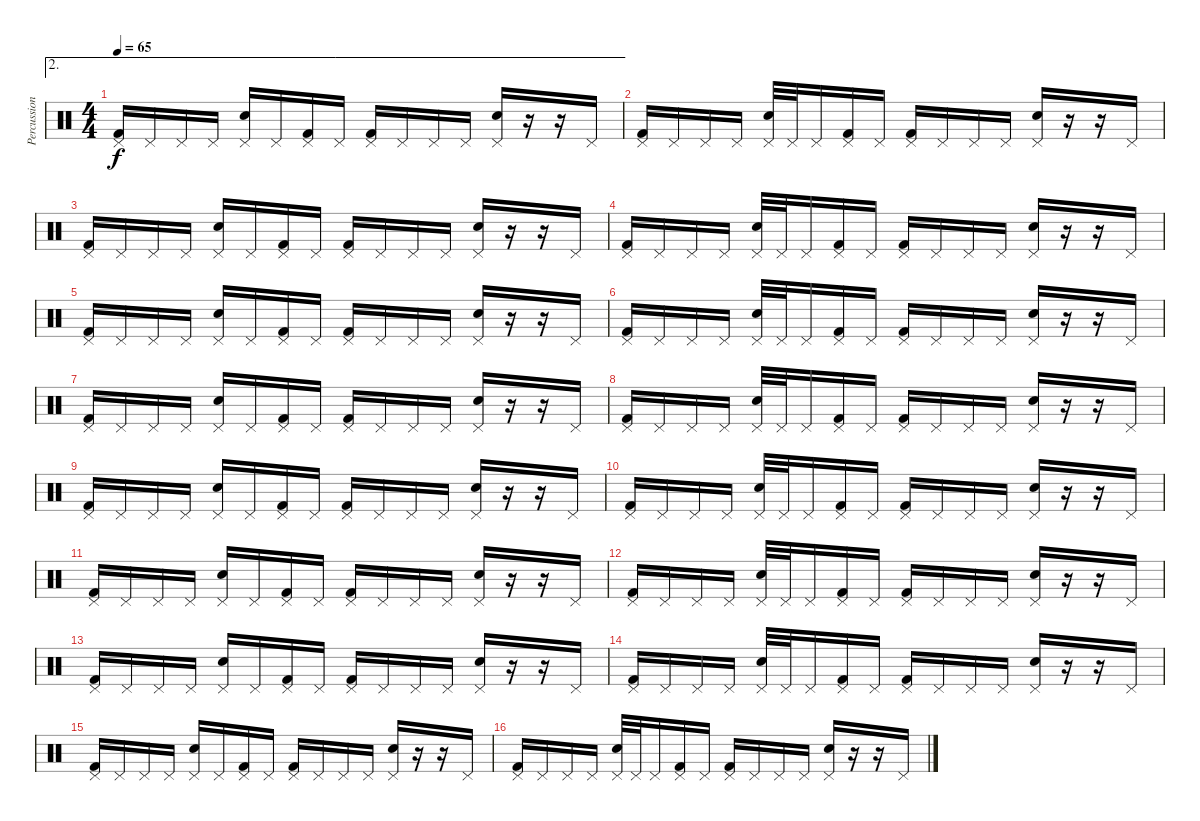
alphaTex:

\track ("Percussion" "Percussion") {instrument percussion}
\staff {score}
\articulation defaults
\ae 2
\ts (4 4)
\tempo 65
\clef neutral
\ks c
("Pedal Hi-Hat (hit)" "Kick (hit) 2").16{dy f} "Pedal Hi-Hat (hit)".16 "Pedal Hi-Hat (hit)".16 "Pedal Hi-Hat (hit)".16 ("Pedal Hi-Hat (hit)" "Snare (hit) 2").16 "Pedal Hi-Hat (hit)".16 ("Pedal Hi-Hat (hit)" "Kick (hit) 2").16 "Pedal Hi-Hat (hit)".16 ("Pedal Hi-Hat (hit)" "Kick (hit) 2").16 "Pedal Hi-Hat (hit)".16 "Pedal Hi-Hat (hit)".16 "Pedal Hi-Hat (hit)".16 ("Pedal Hi-Hat (hit)" "Snare (hit) 2").16 r.16 r.16 "Pedal Hi-Hat (hit)".16 |
("Pedal Hi-Hat (hit)" "Kick (hit) 2").16 "Pedal Hi-Hat (hit)".16 "Pedal Hi-Hat (hit)".16 "Pedal Hi-Hat (hit)".16 ("Pedal Hi-Hat (hit)" "Snare (hit) 2").32 "Pedal Hi-Hat (hit)".32 "Pedal Hi-Hat (hit)".16 ("Pedal Hi-Hat (hit)" "Kick (hit) 2").16 "Pedal Hi-Hat (hit)".16 ("Pedal Hi-Hat (hit)" "Kick (hit) 2").16 "Pedal Hi-Hat (hit)".16 "Pedal Hi-Hat (hit)".16 "Pedal Hi-Hat (hit)".16 ("Pedal Hi-Hat (hit)" "Snare (hit) 2").16 r.16 r.16 "Pedal Hi-Hat (hit)".16 |
("Pedal Hi-Hat (hit)" "Kick (hit) 2").16 "Pedal Hi-Hat (hit)".16 "Pedal Hi-Hat (hit)".16 "Pedal Hi-Hat (hit)".16 ("Pedal Hi-Hat (hit)" "Snare (hit) 2").16 "Pedal Hi-Hat (hit)".16 ("Pedal Hi-Hat (hit)" "Kick (hit) 2").16 "Pedal Hi-Hat (hit)".16 ("Pedal Hi-Hat (hit)" "Kick (hit) 2").16 "Pedal Hi-Hat (hit)".16 "Pedal Hi-Hat (hit)".16 "Pedal Hi-Hat (hit)".16 ("Pedal Hi-Hat (hit)" "Snare (hit) 2").16 r.16 r.16 "Pedal Hi-Hat (hit)".16 |
("Pedal Hi-Hat (hit)" "Kick (hit) 2").16 "Pedal Hi-Hat (hit)".16 "Pedal Hi-Hat (hit)".16 "Pedal Hi-Hat (hit)".16 ("Pedal Hi-Hat (hit)" "Snare (hit) 2").32 "Pedal Hi-Hat (hit)".32 "Pedal Hi-Hat (hit)".16 ("Pedal Hi-Hat (hit)" "Kick (hit) 2").16 "Pedal Hi-Hat (hit)".16 ("Pedal Hi-Hat (hit)" "Kick (hit) 2").16 "Pedal Hi-Hat (hit)".16 "Pedal Hi-Hat (hit)".16 "Pedal Hi-Hat (hit)".16 ("Pedal Hi-Hat (hit)" "Snare (hit) 2").16 r.16 r.16 "Pedal Hi-Hat (hit)".16 |
("Pedal Hi-Hat (hit)" "Kick (hit) 2").16 "Pedal Hi-Hat (hit)".16 "Pedal Hi-Hat (hit)".16 "Pedal Hi-Hat (hit)".16 ("Pedal Hi-Hat (hit)" "Snare (hit) 2").16 "Pedal Hi-Hat (hit)".16 ("Pedal Hi-Hat (hit)" "Kick (hit) 2").16 "Pedal Hi-Hat (hit)".16 ("Pedal Hi-Hat (hit)" "Kick (hit) 2").16 "Pedal Hi-Hat (hit)".16 "Pedal Hi-Hat (hit)".16 "Pedal Hi-Hat (hit)".16 ("Pedal Hi-Hat (hit)" "Snare (hit) 2").16 r.16 r.16 "Pedal Hi-Hat (hit)".16 |
("Pedal Hi-Hat (hit)" "Kick (hit) 2").16 "Pedal Hi-Hat (hit)".16 "Pedal Hi-Hat (hit)".16 "Pedal Hi-Hat (hit)".16 ("Pedal Hi-Hat (hit)" "Snare (hit) 2").32 "Pedal Hi-Hat (hit)".32 "Pedal Hi-Hat (hit)".16 ("Pedal Hi-Hat (hit)" "Kick (hit) 2").16 "Pedal Hi-Hat (hit)".16 ("Pedal Hi-Hat (hit)" "Kick (hit) 2").16 "Pedal Hi-Hat (hit)".16 "Pedal Hi-Hat (hit)".16 "Pedal Hi-Hat (hit)".16 ("Pedal Hi-Hat (hit)" "Snare (hit) 2").16 r.16 r.16 "Pedal Hi-Hat (hit)".16 |
("Pedal Hi-Hat (hit)" "Kick (hit) 2").16 "Pedal Hi-Hat (hit)".16 "Pedal Hi-Hat (hit)".16 "Pedal Hi-Hat (hit)".16 ("Pedal Hi-Hat (hit)" "Snare (hit) 2").16 "Pedal Hi-Hat (hit)".16 ("Pedal Hi-Hat (hit)" "Kick (hit) 2").16 "Pedal Hi-Hat (hit)".16 ("Pedal Hi-Hat (hit)" "Kick (hit) 2").16 "Pedal Hi-Hat (hit)".16 "Pedal Hi-Hat (hit)".16 "Pedal Hi-Hat (hit)".16 ("Pedal Hi-Hat (hit)" "Snare (hit) 2").16 r.16 r.16 "Pedal Hi-Hat (hit)".16 |
("Pedal Hi-Hat (hit)" "Kick (hit) 2").16 "Pedal Hi-Hat (hit)".16 "Pedal Hi-Hat (hit)".16 "Pedal Hi-Hat (hit)".16 ("Pedal Hi-Hat (hit)" "Snare (hit) 2").32 "Pedal Hi-Hat (hit)".32 "Pedal Hi-Hat (hit)".16 ("Pedal Hi-Hat (hit)" "Kick (hit) 2").16 "Pedal Hi-Hat (hit)".16 ("Pedal Hi-Hat (hit)" "Kick (hit) 2").16 "Pedal Hi-Hat (hit)".16 "Pedal Hi-Hat (hit)".16 "Pedal Hi-Hat (hit)".16 ("Pedal Hi-Hat (hit)" "Snare (hit) 2").16 r.16 r.16 "Pedal Hi-Hat (hit)".16 |
("Pedal Hi-Hat (hit)" "Kick (hit) 2").16 "Pedal Hi-Hat (hit)".16 "Pedal Hi-Hat (hit)".16 "Pedal Hi-Hat (hit)".16 ("Pedal Hi-Hat (hit)" "Snare (hit) 2").16 "Pedal Hi-Hat (hit)".16 ("Pedal Hi-Hat (hit)" "Kick (hit) 2").16 "Pedal Hi-Hat (hit)".16 ("Pedal Hi-Hat (hit)" "Kick (hit) 2").16 "Pedal Hi-Hat (hit)".16 "Pedal Hi-Hat (hit)".16 "Pedal Hi-Hat (hit)".16 ("Pedal Hi-Hat (hit)" "Snare (hit) 2").16 r.16 r.16 "Pedal Hi-Hat (hit)".16 |
("Pedal Hi-Hat (hit)" "Kick (hit) 2").16 "Pedal Hi-Hat (hit)".16 "Pedal Hi-Hat (hit)".16 "Pedal Hi-Hat (hit)".16 ("Pedal Hi-Hat (hit)" "Snare (hit) 2").32 "Pedal Hi-Hat (hit)".32 "Pedal Hi-Hat (hit)".16 ("Pedal Hi-Hat (hit)" "Kick (hit) 2").16 "Pedal Hi-Hat (hit)".16 ("Pedal Hi-Hat (hit)" "Kick (hit) 2").16 "Pedal Hi-Hat (hit)".16 "Pedal Hi-Hat (hit)".16 "Pedal Hi-Hat (hit)".16 ("Pedal Hi-Hat (hit)" "Snare (hit) 2").16 r.16 r.16 "Pedal Hi-Hat (hit)".16 |
("Pedal Hi-Hat (hit)" "Kick (hit) 2").16 "Pedal Hi-Hat (hit)".16 "Pedal Hi-Hat (hit)".16 "Pedal Hi-Hat (hit)".16 ("Pedal Hi-Hat (hit)" "Snare (hit) 2").16 "Pedal Hi-Hat (hit)".16 ("Pedal Hi-Hat (hit)" "Kick (hit) 2").16 "Pedal Hi-Hat (hit)".16 ("Pedal Hi-Hat (hit)" "Kick (hit) 2").16 "Pedal Hi-Hat (hit)".16 "Pedal Hi-Hat (hit)".16 "Pedal Hi-Hat (hit)".16 ("Pedal Hi-Hat (hit)" "Snare (hit) 2").16 r.16 r.16 "Pedal Hi-Hat (hit)".16 |
("Pedal Hi-Hat (hit)" "Kick (hit) 2").16 "Pedal Hi-Hat (hit)".16 "Pedal Hi-Hat (hit)".16 "Pedal Hi-Hat (hit)".16 ("Pedal Hi-Hat (hit)" "Snare (hit) 2").32 "Pedal Hi-Hat (hit)".32 "Pedal Hi-Hat (hit)".16 ("Pedal Hi-Hat (hit)" "Kick (hit) 2").16 "Pedal Hi-Hat (hit)".16 ("Pedal Hi-Hat (hit)" "Kick (hit) 2").16 "Pedal Hi-Hat (hit)".16 "Pedal Hi-Hat (hit)".16 "Pedal Hi-Hat (hit)".16 ("Pedal Hi-Hat (hit)" "Snare (hit) 2").16 r.16 r.16 "Pedal Hi-Hat (hit)".16 |
("Pedal Hi-Hat (hit)" "Kick (hit) 2").16 "Pedal Hi-Hat (hit)".16 "Pedal Hi-Hat (hit)".16 "Pedal Hi-Hat (hit)".16 ("Pedal Hi-Hat (hit)" "Snare (hit) 2").16 "Pedal Hi-Hat (hit)".16 ("Pedal Hi-Hat (hit)" "Kick (hit) 2").16 "Pedal Hi-Hat (hit)".16 ("Pedal Hi-Hat (hit)" "Kick (hit) 2").16 "Pedal Hi-Hat (hit)".16 "Pedal Hi-Hat (hit)".16 "Pedal Hi-Hat (hit)".16 ("Pedal Hi-Hat (hit)" "Snare (hit) 2").16 r.16 r.16 "Pedal Hi-Hat (hit)".16 |
("Pedal Hi-Hat (hit)" "Kick (hit) 2").16 "Pedal Hi-Hat (hit)".16 "Pedal Hi-Hat (hit)".16 "Pedal Hi-Hat (hit)".16 ("Pedal Hi-Hat (hit)" "Snare (hit) 2").32 "Pedal Hi-Hat (hit)".32 "Pedal Hi-Hat (hit)".16 ("Pedal Hi-Hat (hit)" "Kick (hit) 2").16 "Pedal Hi-Hat (hit)".16 ("Pedal Hi-Hat (hit)" "Kick (hit) 2").16 "Pedal Hi-Hat (hit)".16 "Pedal Hi-Hat (hit)".16 "Pedal Hi-Hat (hit)".16 ("Pedal Hi-Hat (hit)" "Snare (hit) 2").16 r.16 r.16 "Pedal Hi-Hat (hit)".16 |
("Pedal Hi-Hat (hit)" "Kick (hit) 2").16 "Pedal Hi-Hat (hit)".16 "Pedal Hi-Hat (hit)".16 "Pedal Hi-Hat (hit)".16 ("Pedal Hi-Hat (hit)" "Snare (hit) 2").16 "Pedal Hi-Hat (hit)".16 ("Pedal Hi-Hat (hit)" "Kick (hit) 2").16 "Pedal Hi-Hat (hit)".16 ("Pedal Hi-Hat (hit)" "Kick (hit) 2").16 "Pedal Hi-Hat (hit)".16 "Pedal Hi-Hat (hit)".16 "Pedal Hi-Hat (hit)".16 ("Pedal Hi-Hat (hit)" "Snare (hit) 2").16 r.16 r.16 "Pedal Hi-Hat (hit)".16 |
("Pedal Hi-Hat (hit)" "Kick (hit) 2").16 "Pedal Hi-Hat (hit)".16 "Pedal Hi-Hat (hit)".16 "Pedal Hi-Hat (hit)".16 ("Pedal Hi-Hat (hit)" "Snare (hit) 2").32 "Pedal Hi-Hat (hit)".32 "Pedal Hi-Hat (hit)".16 ("Pedal Hi-Hat (hit)" "Kick (hit) 2").16 "Pedal Hi-Hat (hit)".16 ("Pedal Hi-Hat (hit)" "Kick (hit) 2").16 "Pedal Hi-Hat (hit)".16 "Pedal Hi-Hat (hit)".16 "Pedal Hi-Hat (hit)".16 ("Pedal Hi-Hat (hit)" "Snare (hit) 2").16 r.16 r.16 "Pedal Hi-Hat (hit)".16
